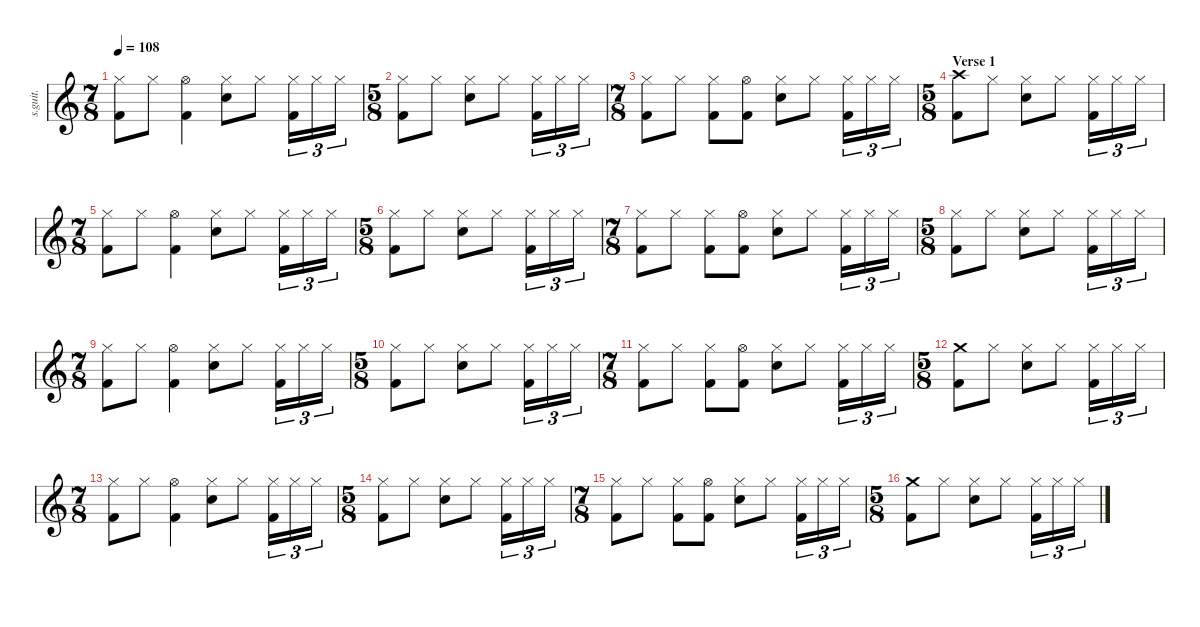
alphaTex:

\defaultSystemsLayout 4
\hideDynamics
\bracketExtendMode nobrackets
\track ("Danny Carey" "s.guit.") {instrument percussion}
\staff {score}
\articulation defaults
\ts (7 8)
\beaming (8 2 2 2 2)
\tempo 108
\clef g2
\ks c
("Hi-Hat (closed)" "Kick (hit) 2").8{lyrics (0 "") lyrics (1 "") lyrics (2 "") lyrics (3 "") lyrics (4 "") dy f} "Hi-Hat (closed)".8{lyrics (0 "") lyrics (1 "") lyrics (2 "") lyrics (3 "") lyrics (4 "")} ("Hi-Hat (open)" "Kick (hit) 2").4{lyrics (0 "") lyrics (1 "") lyrics (2 "") lyrics (3 "") lyrics (4 "")} ("Hi-Hat (closed)" "Snare (hit) 2").8{lyrics (0 "") lyrics (1 "") lyrics (2 "") lyrics (3 "") lyrics (4 "")} "Hi-Hat (closed)".8{lyrics (0 "") lyrics (1 "") lyrics (2 "") lyrics (3 "") lyrics (4 "")} ("Hi-Hat (closed)" "Kick (hit) 2").16{tu (3 2) lyrics (0 "") lyrics (1 "") lyrics (2 "") lyrics (3 "") lyrics (4 "")} "Hi-Hat (closed)".16{tu (3 2) lyrics (0 "") lyrics (1 "") lyrics (2 "") lyrics (3 "") lyrics (4 "")} "Hi-Hat (closed)".16{tu (3 2) lyrics (0 "") lyrics (1 "") lyrics (2 "") lyrics (3 "") lyrics (4 "")} |
\ts (5 8)
\beaming (8 2 2 2 2)
("Hi-Hat (closed)" "Kick (hit) 2").8{lyrics (0 "") lyrics (1 "") lyrics (2 "") lyrics (3 "") lyrics (4 "")} "Hi-Hat (closed)".8{lyrics (0 "") lyrics (1 "") lyrics (2 "") lyrics (3 "") lyrics (4 "")} ("Hi-Hat (closed)" "Snare (hit) 2").8{lyrics (0 "") lyrics (1 "") lyrics (2 "") lyrics (3 "") lyrics (4 "")} "Hi-Hat (closed)".8{lyrics (0 "") lyrics (1 "") lyrics (2 "") lyrics (3 "") lyrics (4 "")} ("Hi-Hat (closed)" "Kick (hit) 2").16{tu (3 2) lyrics (0 "") lyrics (1 "") lyrics (2 "") lyrics (3 "") lyrics (4 "")} "Hi-Hat (closed)".16{tu (3 2) lyrics (0 "") lyrics (1 "") lyrics (2 "") lyrics (3 "") lyrics (4 "")} "Hi-Hat (closed)".16{tu (3 2) lyrics (0 "") lyrics (1 "") lyrics (2 "") lyrics (3 "") lyrics (4 "")} |
\ts (7 8)
\beaming (8 2 2 2 2)
("Hi-Hat (closed)" "Kick (hit) 2").8{lyrics (0 "") lyrics (1 "") lyrics (2 "") lyrics (3 "") lyrics (4 "")} "Hi-Hat (closed)".8{lyrics (0 "") lyrics (1 "") lyrics (2 "") lyrics (3 "") lyrics (4 "")} ("Hi-Hat (closed)" "Kick (hit) 2").8{lyrics (0 "") lyrics (1 "") lyrics (2 "") lyrics (3 "") lyrics (4 "")} ("Hi-Hat (open)" "Kick (hit) 2").8{lyrics (0 "") lyrics (1 "") lyrics (2 "") lyrics (3 "") lyrics (4 "")} ("Hi-Hat (closed)" "Snare (hit) 2").8{lyrics (0 "") lyrics (1 "") lyrics (2 "") lyrics (3 "") lyrics (4 "")} "Hi-Hat (closed)".8{lyrics (0 "") lyrics (1 "") lyrics (2 "") lyrics (3 "") lyrics (4 "")} ("Hi-Hat (closed)" "Kick (hit) 2").16{tu (3 2) lyrics (0 "") lyrics (1 "") lyrics (2 "") lyrics (3 "") lyrics (4 "")} "Hi-Hat (closed)".16{tu (3 2) lyrics (0 "") lyrics (1 "") lyrics (2 "") lyrics (3 "") lyrics (4 "")} "Hi-Hat (closed)".16{tu (3 2) lyrics (0 "") lyrics (1 "") lyrics (2 "") lyrics (3 "") lyrics (4 "")} |
\ts (5 8)
\beaming (8 2 2 2 2)
\section ("" "Verse 1")
("Crash high (hit)" "Kick (hit) 2").8{lyrics (0 "") lyrics (1 "") lyrics (2 "") lyrics (3 "") lyrics (4 "")} "Hi-Hat (closed)".8{lyrics (0 "") lyrics (1 "") lyrics (2 "") lyrics (3 "") lyrics (4 "")} ("Hi-Hat (closed)" "Snare (hit) 2").8{lyrics (0 "") lyrics (1 "") lyrics (2 "") lyrics (3 "") lyrics (4 "")} "Hi-Hat (closed)".8{lyrics (0 "") lyrics (1 "") lyrics (2 "") lyrics (3 "") lyrics (4 "")} ("Hi-Hat (closed)" "Kick (hit) 2").16{tu (3 2) lyrics (0 "") lyrics (1 "") lyrics (2 "") lyrics (3 "") lyrics (4 "")} "Hi-Hat (closed)".16{tu (3 2) lyrics (0 "") lyrics (1 "") lyrics (2 "") lyrics (3 "") lyrics (4 "")} "Hi-Hat (closed)".16{tu (3 2) lyrics (0 "") lyrics (1 "") lyrics (2 "") lyrics (3 "") lyrics (4 "")} |
\ts (7 8)
\beaming (8 2 2 2 2)
("Hi-Hat (closed)" "Kick (hit) 2").8{lyrics (0 "") lyrics (1 "") lyrics (2 "") lyrics (3 "") lyrics (4 "")} "Hi-Hat (closed)".8{lyrics (0 "") lyrics (1 "") lyrics (2 "") lyrics (3 "") lyrics (4 "")} ("Hi-Hat (open)" "Kick (hit) 2").4{lyrics (0 "") lyrics (1 "") lyrics (2 "") lyrics (3 "") lyrics (4 "")} ("Hi-Hat (closed)" "Snare (hit) 2").8{lyrics (0 "") lyrics (1 "") lyrics (2 "") lyrics (3 "") lyrics (4 "")} "Hi-Hat (closed)".8{lyrics (0 "") lyrics (1 "") lyrics (2 "") lyrics (3 "") lyrics (4 "")} ("Hi-Hat (closed)" "Kick (hit) 2").16{tu (3 2) lyrics (0 "") lyrics (1 "") lyrics (2 "") lyrics (3 "") lyrics (4 "")} "Hi-Hat (closed)".16{tu (3 2) lyrics (0 "") lyrics (1 "") lyrics (2 "") lyrics (3 "") lyrics (4 "")} "Hi-Hat (closed)".16{tu (3 2) lyrics (0 "") lyrics (1 "") lyrics (2 "") lyrics (3 "") lyrics (4 "")} |
\ts (5 8)
\beaming (8 2 2 2 2)
("Hi-Hat (closed)" "Kick (hit) 2").8{lyrics (0 "") lyrics (1 "") lyrics (2 "") lyrics (3 "") lyrics (4 "")} "Hi-Hat (closed)".8{lyrics (0 "") lyrics (1 "") lyrics (2 "") lyrics (3 "") lyrics (4 "")} ("Hi-Hat (closed)" "Snare (hit) 2").8{lyrics (0 "") lyrics (1 "") lyrics (2 "") lyrics (3 "") lyrics (4 "")} "Hi-Hat (closed)".8{lyrics (0 "") lyrics (1 "") lyrics (2 "") lyrics (3 "") lyrics (4 "")} ("Hi-Hat (closed)" "Kick (hit) 2").16{tu (3 2) lyrics (0 "") lyrics (1 "") lyrics (2 "") lyrics (3 "") lyrics (4 "")} "Hi-Hat (closed)".16{tu (3 2) lyrics (0 "") lyrics (1 "") lyrics (2 "") lyrics (3 "") lyrics (4 "")} "Hi-Hat (closed)".16{tu (3 2) lyrics (0 "") lyrics (1 "") lyrics (2 "") lyrics (3 "") lyrics (4 "")} |
\ts (7 8)
\beaming (8 2 2 2 2)
("Hi-Hat (closed)" "Kick (hit) 2").8{lyrics (0 "") lyrics (1 "") lyrics (2 "") lyrics (3 "") lyrics (4 "")} "Hi-Hat (closed)".8{lyrics (0 "") lyrics (1 "") lyrics (2 "") lyrics (3 "") lyrics (4 "")} ("Hi-Hat (closed)" "Kick (hit) 2").8{lyrics (0 "") lyrics (1 "") lyrics (2 "") lyrics (3 "") lyrics (4 "")} ("Hi-Hat (open)" "Kick (hit) 2").8{lyrics (0 "") lyrics (1 "") lyrics (2 "") lyrics (3 "") lyrics (4 "")} ("Hi-Hat (closed)" "Snare (hit) 2").8{lyrics (0 "") lyrics (1 "") lyrics (2 "") lyrics (3 "") lyrics (4 "")} "Hi-Hat (closed)".8{lyrics (0 "") lyrics (1 "") lyrics (2 "") lyrics (3 "") lyrics (4 "")} ("Hi-Hat (closed)" "Kick (hit) 2").16{tu (3 2) lyrics (0 "") lyrics (1 "") lyrics (2 "") lyrics (3 "") lyrics (4 "")} "Hi-Hat (closed)".16{tu (3 2) lyrics (0 "") lyrics (1 "") lyrics (2 "") lyrics (3 "") lyrics (4 "")} "Hi-Hat (closed)".16{tu (3 2) lyrics (0 "") lyrics (1 "") lyrics (2 "") lyrics (3 "") lyrics (4 "")} |
\ts (5 8)
\beaming (8 2 2 2 2)
("Hi-Hat (closed)" "Kick (hit) 2").8{lyrics (0 "") lyrics (1 "") lyrics (2 "") lyrics (3 "") lyrics (4 "")} "Hi-Hat (closed)".8{lyrics (0 "") lyrics (1 "") lyrics (2 "") lyrics (3 "") lyrics (4 "")} ("Hi-Hat (closed)" "Snare (hit) 2").8{lyrics (0 "") lyrics (1 "") lyrics (2 "") lyrics (3 "") lyrics (4 "")} "Hi-Hat (closed)".8{lyrics (0 "") lyrics (1 "") lyrics (2 "") lyrics (3 "") lyrics (4 "")} ("Hi-Hat (closed)" "Kick (hit) 2").16{tu (3 2) lyrics (0 "") lyrics (1 "") lyrics (2 "") lyrics (3 "") lyrics (4 "")} "Hi-Hat (closed)".16{tu (3 2) lyrics (0 "") lyrics (1 "") lyrics (2 "") lyrics (3 "") lyrics (4 "")} "Hi-Hat (closed)".16{tu (3 2) lyrics (0 "") lyrics (1 "") lyrics (2 "") lyrics (3 "") lyrics (4 "")} |
\ts (7 8)
\beaming (8 2 2 2 2)
("Hi-Hat (closed)" "Kick (hit) 2").8{lyrics (0 "") lyrics (1 "") lyrics (2 "") lyrics (3 "") lyrics (4 "")} "Hi-Hat (closed)".8{lyrics (0 "") lyrics (1 "") lyrics (2 "") lyrics (3 "") lyrics (4 "")} ("Hi-Hat (open)" "Kick (hit) 2").4{lyrics (0 "") lyrics (1 "") lyrics (2 "") lyrics (3 "") lyrics (4 "")} ("Hi-Hat (closed)" "Snare (hit) 2").8{lyrics (0 "") lyrics (1 "") lyrics (2 "") lyrics (3 "") lyrics (4 "")} "Hi-Hat (closed)".8{lyrics (0 "") lyrics (1 "") lyrics (2 "") lyrics (3 "") lyrics (4 "")} ("Hi-Hat (closed)" "Kick (hit) 2").16{tu (3 2) lyrics (0 "") lyrics (1 "") lyrics (2 "") lyrics (3 "") lyrics (4 "")} "Hi-Hat (closed)".16{tu (3 2) lyrics (0 "") lyrics (1 "") lyrics (2 "") lyrics (3 "") lyrics (4 "")} "Hi-Hat (closed)".16{tu (3 2) lyrics (0 "") lyrics (1 "") lyrics (2 "") lyrics (3 "") lyrics (4 "")} |
\ts (5 8)
\beaming (8 2 2 2 2)
("Hi-Hat (closed)" "Kick (hit) 2").8{lyrics (0 "") lyrics (1 "") lyrics (2 "") lyrics (3 "") lyrics (4 "")} "Hi-Hat (closed)".8{lyrics (0 "") lyrics (1 "") lyrics (2 "") lyrics (3 "") lyrics (4 "")} ("Hi-Hat (closed)" "Snare (hit) 2").8{lyrics (0 "") lyrics (1 "") lyrics (2 "") lyrics (3 "") lyrics (4 "")} "Hi-Hat (closed)".8{lyrics (0 "") lyrics (1 "") lyrics (2 "") lyrics (3 "") lyrics (4 "")} ("Hi-Hat (closed)" "Kick (hit) 2").16{tu (3 2) lyrics (0 "") lyrics (1 "") lyrics (2 "") lyrics (3 "") lyrics (4 "")} "Hi-Hat (closed)".16{tu (3 2) lyrics (0 "") lyrics (1 "") lyrics (2 "") lyrics (3 "") lyrics (4 "")} "Hi-Hat (closed)".16{tu (3 2) lyrics (0 "") lyrics (1 "") lyrics (2 "") lyrics (3 "") lyrics (4 "")} |
\ts (7 8)
\beaming (8 2 2 2 2)
("Hi-Hat (closed)" "Kick (hit) 2").8{lyrics (0 "") lyrics (1 "") lyrics (2 "") lyrics (3 "") lyrics (4 "")} "Hi-Hat (closed)".8{lyrics (0 "") lyrics (1 "") lyrics (2 "") lyrics (3 "") lyrics (4 "")} ("Hi-Hat (closed)" "Kick (hit) 2").8{lyrics (0 "") lyrics (1 "") lyrics (2 "") lyrics (3 "") lyrics (4 "")} ("Hi-Hat (open)" "Kick (hit) 2").8{lyrics (0 "") lyrics (1 "") lyrics (2 "") lyrics (3 "") lyrics (4 "")} ("Hi-Hat (closed)" "Snare (hit) 2").8{lyrics (0 "") lyrics (1 "") lyrics (2 "") lyrics (3 "") lyrics (4 "")} "Hi-Hat (closed)".8{lyrics (0 "") lyrics (1 "") lyrics (2 "") lyrics (3 "") lyrics (4 "")} ("Hi-Hat (closed)" "Kick (hit) 2").16{tu (3 2) lyrics (0 "") lyrics (1 "") lyrics (2 "") lyrics (3 "") lyrics (4 "")} "Hi-Hat (closed)".16{tu (3 2) lyrics (0 "") lyrics (1 "") lyrics (2 "") lyrics (3 "") lyrics (4 "")} "Hi-Hat (closed)".16{tu (3 2) lyrics (0 "") lyrics (1 "") lyrics (2 "") lyrics (3 "") lyrics (4 "")} |
\ts (5 8)
\beaming (8 2 2 2 2)
("Crash medium (hit)" "Kick (hit) 2").8{lyrics (0 "") lyrics (1 "") lyrics (2 "") lyrics (3 "") lyrics (4 "")} "Hi-Hat (closed)".8{lyrics (0 "") lyrics (1 "") lyrics (2 "") lyrics (3 "") lyrics (4 "")} ("Hi-Hat (closed)" "Snare (hit) 2").8{lyrics (0 "") lyrics (1 "") lyrics (2 "") lyrics (3 "") lyrics (4 "")} "Hi-Hat (closed)".8{lyrics (0 "") lyrics (1 "") lyrics (2 "") lyrics (3 "") lyrics (4 "")} ("Hi-Hat (closed)" "Kick (hit) 2").16{tu (3 2) lyrics (0 "") lyrics (1 "") lyrics (2 "") lyrics (3 "") lyrics (4 "")} "Hi-Hat (closed)".16{tu (3 2) lyrics (0 "") lyrics (1 "") lyrics (2 "") lyrics (3 "") lyrics (4 "")} "Hi-Hat (closed)".16{tu (3 2) lyrics (0 "") lyrics (1 "") lyrics (2 "") lyrics (3 "") lyrics (4 "")} |
\ts (7 8)
\beaming (8 2 2 2 2)
("Hi-Hat (closed)" "Kick (hit) 2").8{lyrics (0 "") lyrics (1 "") lyrics (2 "") lyrics (3 "") lyrics (4 "")} "Hi-Hat (closed)".8{lyrics (0 "") lyrics (1 "") lyrics (2 "") lyrics (3 "") lyrics (4 "")} ("Hi-Hat (open)" "Kick (hit) 2").4{lyrics (0 "") lyrics (1 "") lyrics (2 "") lyrics (3 "") lyrics (4 "")} ("Hi-Hat (closed)" "Snare (hit) 2").8{lyrics (0 "") lyrics (1 "") lyrics (2 "") lyrics (3 "") lyrics (4 "")} "Hi-Hat (closed)".8{lyrics (0 "") lyrics (1 "") lyrics (2 "") lyrics (3 "") lyrics (4 "")} ("Hi-Hat (closed)" "Kick (hit) 2").16{tu (3 2) lyrics (0 "") lyrics (1 "") lyrics (2 "") lyrics (3 "") lyrics (4 "")} "Hi-Hat (closed)".16{tu (3 2) lyrics (0 "") lyrics (1 "") lyrics (2 "") lyrics (3 "") lyrics (4 "")} "Hi-Hat (closed)".16{tu (3 2) lyrics (0 "") lyrics (1 "") lyrics (2 "") lyrics (3 "") lyrics (4 "")} |
\ts (5 8)
\beaming (8 2 2 2 2)
("Hi-Hat (closed)" "Kick (hit) 2").8{lyrics (0 "") lyrics (1 "") lyrics (2 "") lyrics (3 "") lyrics (4 "")} "Hi-Hat (closed)".8{lyrics (0 "") lyrics (1 "") lyrics (2 "") lyrics (3 "") lyrics (4 "")} ("Hi-Hat (closed)" "Snare (hit) 2").8{lyrics (0 "") lyrics (1 "") lyrics (2 "") lyrics (3 "") lyrics (4 "")} "Hi-Hat (closed)".8{lyrics (0 "") lyrics (1 "") lyrics (2 "") lyrics (3 "") lyrics (4 "")} ("Hi-Hat (closed)" "Kick (hit) 2").16{tu (3 2) lyrics (0 "") lyrics (1 "") lyrics (2 "") lyrics (3 "") lyrics (4 "")} "Hi-Hat (closed)".16{tu (3 2) lyrics (0 "") lyrics (1 "") lyrics (2 "") lyrics (3 "") lyrics (4 "")} "Hi-Hat (closed)".16{tu (3 2) lyrics (0 "") lyrics (1 "") lyrics (2 "") lyrics (3 "") lyrics (4 "")} |
\ts (7 8)
\beaming (8 2 2 2 2)
("Hi-Hat (closed)" "Kick (hit) 2").8{lyrics (0 "") lyrics (1 "") lyrics (2 "") lyrics (3 "") lyrics (4 "")} "Hi-Hat (closed)".8{lyrics (0 "") lyrics (1 "") lyrics (2 "") lyrics (3 "") lyrics (4 "")} ("Hi-Hat (closed)" "Kick (hit) 2").8{lyrics (0 "") lyrics (1 "") lyrics (2 "") lyrics (3 "") lyrics (4 "")} ("Hi-Hat (open)" "Kick (hit) 2").8{lyrics (0 "") lyrics (1 "") lyrics (2 "") lyrics (3 "") lyrics (4 "")} ("Hi-Hat (closed)" "Snare (hit) 2").8{lyrics (0 "") lyrics (1 "") lyrics (2 "") lyrics (3 "") lyrics (4 "")} "Hi-Hat (closed)".8{lyrics (0 "") lyrics (1 "") lyrics (2 "") lyrics (3 "") lyrics (4 "")} ("Hi-Hat (closed)" "Kick (hit) 2").16{tu (3 2) lyrics (0 "") lyrics (1 "") lyrics (2 "") lyrics (3 "") lyrics (4 "")} "Hi-Hat (closed)".16{tu (3 2) lyrics (0 "") lyrics (1 "") lyrics (2 "") lyrics (3 "") lyrics (4 "")} "Hi-Hat (closed)".16{tu (3 2) lyrics (0 "") lyrics (1 "") lyrics (2 "") lyrics (3 "") lyrics (4 "")} |
\ts (5 8)
\beaming (8 2 2 2 2)
("Crash medium (hit)" "Kick (hit) 2").8{lyrics (0 "") lyrics (1 "") lyrics (2 "") lyrics (3 "") lyrics (4 "")} "Hi-Hat (closed)".8{lyrics (0 "") lyrics (1 "") lyrics (2 "") lyrics (3 "") lyrics (4 "")} ("Hi-Hat (closed)" "Snare (hit) 2").8{lyrics (0 "") lyrics (1 "") lyrics (2 "") lyrics (3 "") lyrics (4 "")} "Hi-Hat (closed)".8{lyrics (0 "") lyrics (1 "") lyrics (2 "") lyrics (3 "") lyrics (4 "")} ("Hi-Hat (closed)" "Kick (hit) 2").16{tu (3 2) lyrics (0 "") lyrics (1 "") lyrics (2 "") lyrics (3 "") lyrics (4 "")} "Hi-Hat (closed)".16{tu (3 2) lyrics (0 "") lyrics (1 "") lyrics (2 "") lyrics (3 "") lyrics (4 "")} "Hi-Hat (closed)".16{tu (3 2) lyrics (0 "") lyrics (1 "") lyrics (2 "") lyrics (3 "") lyrics (4 "")}
